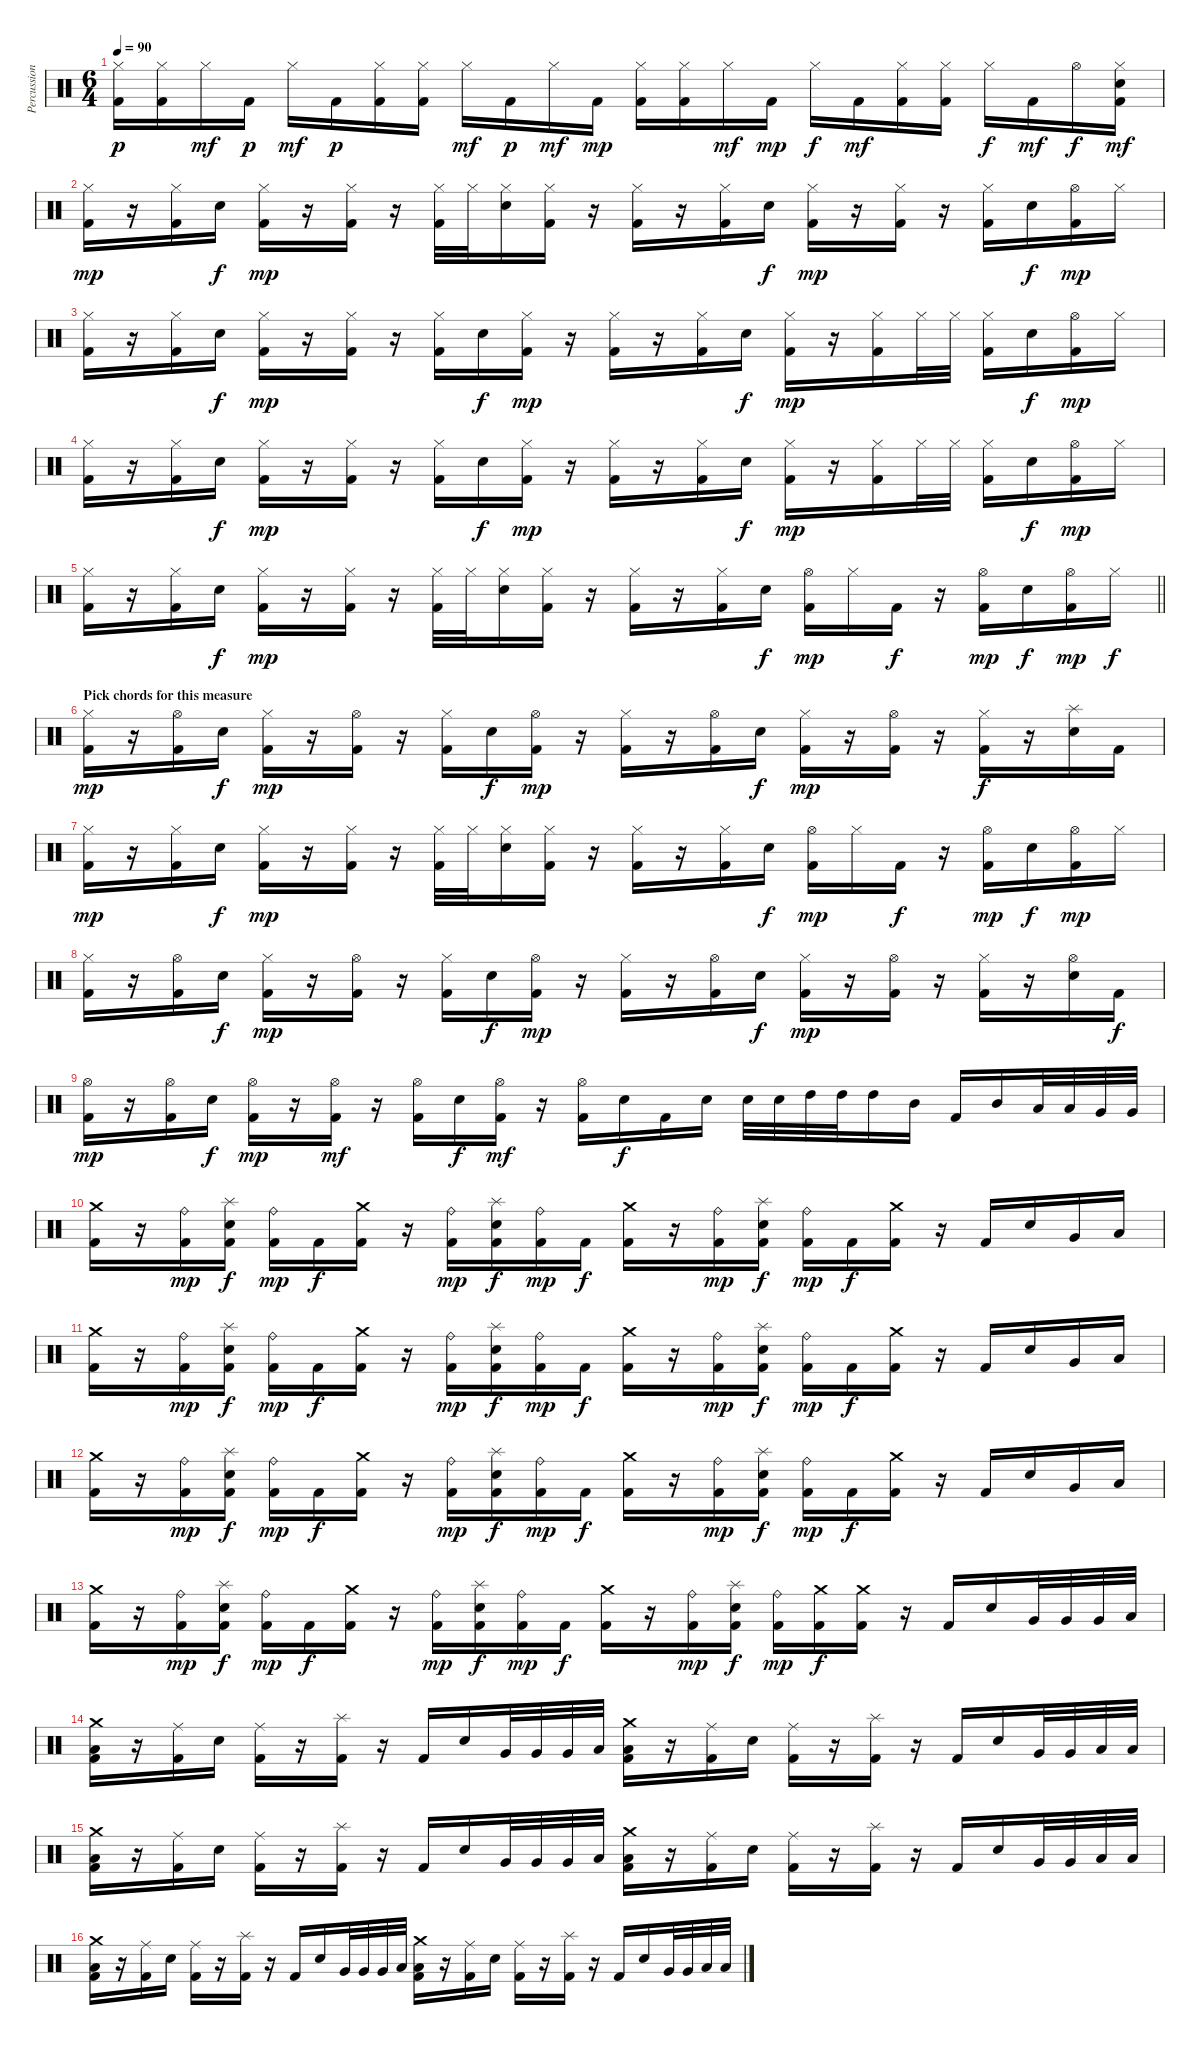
\track ("Percussion" "Percussion") {instrument percussion}
\staff {score}
\articulation defaults
\ts (6 4)
\tempo 90
\clef neutral
\ks c
("Hi-Hat (closed)" "Kick (hit) 2").16{dy p} ("Hi-Hat (closed)" "Kick (hit) 2").16 "Hi-Hat (closed)".16{dy mf} "Kick (hit) 2".16{dy p} "Hi-Hat (closed)".16{dy mf} "Kick (hit) 2".16{dy p} ("Hi-Hat (closed)" "Kick (hit) 2").16 ("Hi-Hat (closed)" "Kick (hit) 2").16 "Hi-Hat (closed)".16{dy mf} "Kick (hit) 2".16{dy p} "Hi-Hat (closed)".16{dy mf} "Kick (hit) 2".16{dy mp} ("Hi-Hat (closed)" "Kick (hit) 2").16 ("Hi-Hat (closed)" "Kick (hit) 2").16 "Hi-Hat (closed)".16{dy mf} "Kick (hit) 2".16{dy mp} "Hi-Hat (closed)".16{dy f} "Kick (hit) 2".16{dy mf} ("Hi-Hat (closed)" "Kick (hit) 2").16 ("Hi-Hat (closed)" "Kick (hit) 2").16 "Hi-Hat (closed)".16{dy f} "Kick (hit) 2".16{dy mf} "Hi-Hat (open)".16{dy f} ("Hi-Hat (closed)" "Electric Snare (hit)" "Kick (hit) 2").16{dy mf} |
("Hi-Hat (closed)" "Kick (hit) 2").16{dy mp} r.16 ("Hi-Hat (closed)" "Kick (hit) 2").16 "Electric Snare (hit)".16{dy f} ("Hi-Hat (closed)" "Kick (hit) 2").16{dy mp} r.16 ("Hi-Hat (closed)" "Kick (hit) 2").16 r.16 ("Hi-Hat (closed)" "Kick (hit) 2").32 "Hi-Hat (closed)".32 ("Hi-Hat (closed)" "Electric Snare (hit)").16 ("Hi-Hat (closed)" "Kick (hit) 2").16 r.16 ("Hi-Hat (closed)" "Kick (hit) 2").16 r.16 ("Hi-Hat (closed)" "Kick (hit) 2").16 "Electric Snare (hit)".16{dy f} ("Hi-Hat (closed)" "Kick (hit) 2").16{dy mp} r.16 ("Hi-Hat (closed)" "Kick (hit) 2").16 r.16 ("Hi-Hat (closed)" "Kick (hit) 2").16 "Electric Snare (hit)".16{dy f} ("Hi-Hat (open)" "Kick (hit) 2").16{dy mp} "Hi-Hat (closed)".16 |
("Hi-Hat (closed)" "Kick (hit) 2").16 r.16 ("Hi-Hat (closed)" "Kick (hit) 2").16 "Electric Snare (hit)".16{dy f} ("Hi-Hat (closed)" "Kick (hit) 2").16{dy mp} r.16 ("Hi-Hat (closed)" "Kick (hit) 2").16 r.16 ("Hi-Hat (closed)" "Kick (hit) 2").16 "Electric Snare (hit)".16{dy f} ("Hi-Hat (closed)" "Kick (hit) 2").16{dy mp} r.16 ("Hi-Hat (closed)" "Kick (hit) 2").16 r.16 ("Hi-Hat (closed)" "Kick (hit) 2").16 "Electric Snare (hit)".16{dy f} ("Hi-Hat (closed)" "Kick (hit) 2").16{dy mp} r.16 ("Hi-Hat (closed)" "Kick (hit) 2").16 "Hi-Hat (closed)".32 "Hi-Hat (closed)".32 ("Hi-Hat (closed)" "Kick (hit) 2").16 "Electric Snare (hit)".16{dy f} ("Hi-Hat (open)" "Kick (hit) 2").16{dy mp} "Hi-Hat (closed)".16 |
("Hi-Hat (closed)" "Kick (hit) 2").16 r.16 ("Hi-Hat (closed)" "Kick (hit) 2").16 "Electric Snare (hit)".16{dy f} ("Hi-Hat (closed)" "Kick (hit) 2").16{dy mp} r.16 ("Hi-Hat (closed)" "Kick (hit) 2").16 r.16 ("Hi-Hat (closed)" "Kick (hit) 2").16 "Electric Snare (hit)".16{dy f} ("Hi-Hat (closed)" "Kick (hit) 2").16{dy mp} r.16 ("Hi-Hat (closed)" "Kick (hit) 2").16 r.16 ("Hi-Hat (closed)" "Kick (hit) 2").16 "Electric Snare (hit)".16{dy f} ("Hi-Hat (closed)" "Kick (hit) 2").16{dy mp} r.16 ("Hi-Hat (closed)" "Kick (hit) 2").16 "Hi-Hat (closed)".32 "Hi-Hat (closed)".32 ("Hi-Hat (closed)" "Kick (hit) 2").16 "Electric Snare (hit)".16{dy f} ("Hi-Hat (open)" "Kick (hit) 2").16{dy mp} "Hi-Hat (closed)".16 |
\barLineRight lightlight
("Hi-Hat (closed)" "Kick (hit) 2").16 r.16 ("Hi-Hat (closed)" "Kick (hit) 2").16 "Electric Snare (hit)".16{dy f} ("Hi-Hat (closed)" "Kick (hit) 2").16{dy mp} r.16 ("Hi-Hat (closed)" "Kick (hit) 2").16 r.16 ("Hi-Hat (closed)" "Kick (hit) 2").32 "Hi-Hat (closed)".32 ("Hi-Hat (closed)" "Electric Snare (hit)").16 ("Hi-Hat (closed)" "Kick (hit) 2").16 r.16 ("Hi-Hat (closed)" "Kick (hit) 2").16 r.16 ("Hi-Hat (closed)" "Kick (hit) 2").16 "Electric Snare (hit)".16{dy f} ("Hi-Hat (open)" "Kick (hit) 2").16{dy mp} "Hi-Hat (closed)".16 "Kick (hit) 2".16{dy f} r.16 ("Hi-Hat (open)" "Kick (hit) 2").16{dy mp} "Electric Snare (hit)".16{dy f} ("Hi-Hat (open)" "Kick (hit) 2").16{dy mp} "Hi-Hat (closed)".16{dy f} |
\section ("" "Pick chords for this measure")
("Hi-Hat (closed)" "Kick (hit) 2").16{dy mp} r.16 ("Hi-Hat (open)" "Kick (hit) 2").16 "Electric Snare (hit)".16{dy f} ("Hi-Hat (closed)" "Kick (hit) 2").16{dy mp} r.16 ("Hi-Hat (open)" "Kick (hit) 2").16 r.16 ("Hi-Hat (closed)" "Kick (hit) 2").16 "Electric Snare (hit)".16{dy f} ("Hi-Hat (open)" "Kick (hit) 2").16{dy mp} r.16 ("Hi-Hat (closed)" "Kick (hit) 2").16 r.16 ("Hi-Hat (open)" "Kick (hit) 2").16 "Electric Snare (hit)".16{dy f} ("Hi-Hat (closed)" "Kick (hit) 2").16{dy mp} r.16 ("Hi-Hat (open)" "Kick (hit) 2").16 r.16 ("Hi-Hat (closed)" "Kick (hit) 2").16{dy f} r.16 ("Splash (hit)" "Electric Snare (hit)").16 "Kick (hit) 2".16 |
("Hi-Hat (closed)" "Kick (hit) 2").16{dy mp} r.16 ("Hi-Hat (closed)" "Kick (hit) 2").16 "Electric Snare (hit)".16{dy f} ("Hi-Hat (closed)" "Kick (hit) 2").16{dy mp} r.16 ("Hi-Hat (closed)" "Kick (hit) 2").16 r.16 ("Hi-Hat (closed)" "Kick (hit) 2").32 "Hi-Hat (closed)".32 ("Hi-Hat (closed)" "Electric Snare (hit)").16 ("Hi-Hat (closed)" "Kick (hit) 2").16 r.16 ("Hi-Hat (closed)" "Kick (hit) 2").16 r.16 ("Hi-Hat (closed)" "Kick (hit) 2").16 "Electric Snare (hit)".16{dy f} ("Hi-Hat (open)" "Kick (hit) 2").16{dy mp} "Hi-Hat (closed)".16 "Kick (hit) 2".16{dy f} r.16 ("Hi-Hat (open)" "Kick (hit) 2").16{dy mp} "Electric Snare (hit)".16{dy f} ("Hi-Hat (open)" "Kick (hit) 2").16{dy mp} "Hi-Hat (closed)".16 |
("Hi-Hat (closed)" "Kick (hit) 2").16 r.16 ("Hi-Hat (open)" "Kick (hit) 2").16 "Electric Snare (hit)".16{dy f} ("Hi-Hat (closed)" "Kick (hit) 2").16{dy mp} r.16 ("Hi-Hat (open)" "Kick (hit) 2").16 r.16 ("Hi-Hat (closed)" "Kick (hit) 2").16 "Electric Snare (hit)".16{dy f} ("Hi-Hat (open)" "Kick (hit) 2").16{dy mp} r.16 ("Hi-Hat (closed)" "Kick (hit) 2").16 r.16 ("Hi-Hat (open)" "Kick (hit) 2").16 "Electric Snare (hit)".16{dy f} ("Hi-Hat (closed)" "Kick (hit) 2").16{dy mp} r.16 ("Hi-Hat (open)" "Kick (hit) 2").16 r.16 ("Hi-Hat (closed)" "Kick (hit) 2").16 r.16 ("Hi-Hat (open)" "Electric Snare (hit)").16 "Kick (hit) 2".16{dy f} |
("Hi-Hat (open)" "Kick (hit) 2").16{dy mp} r.16 ("Hi-Hat (open)" "Kick (hit) 2").16 "Electric Snare (hit)".16{dy f} ("Hi-Hat (open)" "Kick (hit) 2").16{dy mp} r.16 ("Hi-Hat (open)" "Kick (hit) 2").16{dy mf} r.16 ("Hi-Hat (open)" "Kick (hit) 2").16 "Electric Snare (hit)".16{dy f} ("Hi-Hat (open)" "Kick (hit) 2").16{dy mf} r.16 ("Hi-Hat (open)" "Kick (hit) 2").16 "Electric Snare (hit)".16{dy f} "Kick (hit) 2".16 "Electric Snare (hit)".16 "Electric Snare (hit)".32 "Electric Snare (hit)".32 "High Tom (hit)".32 "High Tom (hit)".32 "High Tom (hit)".16 "Mid Tom (hit)".16 "Kick (hit) 2".16 "Mid Tom (hit)".16 "Low Tom (hit)".32 "Low Tom (hit)".32 "Very Low Tom (hit)".32 "Very Low Tom (hit)".32 |
("Crash medium (hit)" "Kick (hit) 2").16 r.16 ("Ride (bell)" "Kick (hit) 2").16{dy mp} ("Splash (hit)" "Electric Snare (hit)" "Kick (hit) 2").16{dy f} ("Ride (bell)" "Kick (hit) 2").16{dy mp} "Kick (hit) 2".16{dy f} ("Crash medium (hit)" "Kick (hit) 2").16 r.16 ("Ride (bell)" "Kick (hit) 2").16{dy mp} ("Splash (hit)" "Electric Snare (hit)" "Kick (hit) 2").16{dy f} ("Ride (bell)" "Kick (hit) 2").16{dy mp} "Kick (hit) 2".16{dy f} ("Crash medium (hit)" "Kick (hit) 2").16 r.16 ("Ride (bell)" "Kick (hit) 2").16{dy mp} ("Splash (hit)" "Electric Snare (hit)" "Kick (hit) 2").16{dy f} ("Ride (bell)" "Kick (hit) 2").16{dy mp} "Kick (hit) 2".16{dy f} ("Crash medium (hit)" "Kick (hit) 2").16 r.16 "Kick (hit) 2".16 "Electric Snare (hit)".16 "Very Low Tom (hit)".16 "Low Floor Tom (hit)".16 |
("Crash medium (hit)" "Kick (hit) 2").16 r.16 ("Ride (bell)" "Kick (hit) 2").16{dy mp} ("Splash (hit)" "Electric Snare (hit)" "Kick (hit) 2").16{dy f} ("Ride (bell)" "Kick (hit) 2").16{dy mp} "Kick (hit) 2".16{dy f} ("Crash medium (hit)" "Kick (hit) 2").16 r.16 ("Ride (bell)" "Kick (hit) 2").16{dy mp} ("Splash (hit)" "Electric Snare (hit)" "Kick (hit) 2").16{dy f} ("Ride (bell)" "Kick (hit) 2").16{dy mp} "Kick (hit) 2".16{dy f} ("Crash medium (hit)" "Kick (hit) 2").16 r.16 ("Ride (bell)" "Kick (hit) 2").16{dy mp} ("Splash (hit)" "Electric Snare (hit)" "Kick (hit) 2").16{dy f} ("Ride (bell)" "Kick (hit) 2").16{dy mp} "Kick (hit) 2".16{dy f} ("Crash medium (hit)" "Kick (hit) 2").16 r.16 "Kick (hit) 2".16 "Electric Snare (hit)".16 "Very Low Tom (hit)".16 "Low Floor Tom (hit)".16 |
("Crash medium (hit)" "Kick (hit) 2").16 r.16 ("Ride (bell)" "Kick (hit) 2").16{dy mp} ("Splash (hit)" "Electric Snare (hit)" "Kick (hit) 2").16{dy f} ("Ride (bell)" "Kick (hit) 2").16{dy mp} "Kick (hit) 2".16{dy f} ("Crash medium (hit)" "Kick (hit) 2").16 r.16 ("Ride (bell)" "Kick (hit) 2").16{dy mp} ("Splash (hit)" "Electric Snare (hit)" "Kick (hit) 2").16{dy f} ("Ride (bell)" "Kick (hit) 2").16{dy mp} "Kick (hit) 2".16{dy f} ("Crash medium (hit)" "Kick (hit) 2").16 r.16 ("Ride (bell)" "Kick (hit) 2").16{dy mp} ("Splash (hit)" "Electric Snare (hit)" "Kick (hit) 2").16{dy f} ("Ride (bell)" "Kick (hit) 2").16{dy mp} "Kick (hit) 2".16{dy f} ("Crash medium (hit)" "Kick (hit) 2").16 r.16 "Kick (hit) 2".16 "Electric Snare (hit)".16 "Very Low Tom (hit)".16 "Low Floor Tom (hit)".16 |
("Crash medium (hit)" "Kick (hit) 2").16 r.16 ("Ride (bell)" "Kick (hit) 2").16{dy mp} ("Splash (hit)" "Electric Snare (hit)" "Kick (hit) 2").16{dy f} ("Ride (bell)" "Kick (hit) 2").16{dy mp} "Kick (hit) 2".16{dy f} ("Crash medium (hit)" "Kick (hit) 2").16 r.16 ("Ride (bell)" "Kick (hit) 2").16{dy mp} ("Splash (hit)" "Electric Snare (hit)" "Kick (hit) 2").16{dy f} ("Ride (bell)" "Kick (hit) 2").16{dy mp} "Kick (hit) 2".16{dy f} ("Crash medium (hit)" "Kick (hit) 2").16 r.16 ("Ride (bell)" "Kick (hit) 2").16{dy mp} ("Splash (hit)" "Electric Snare (hit)" "Kick (hit) 2").16{dy f} ("Ride (bell)" "Kick (hit) 2").16{dy mp} ("Crash medium (hit)" "Kick (hit) 2").16{dy f} ("Crash medium (hit)" "Kick (hit) 2").16 r.16 "Kick (hit) 2".16 "Electric Snare (hit)".16 "Very Low Tom (hit)".32 "Very Low Tom (hit)".32 "Very Low Tom (hit)".32 "Low Floor Tom (hit)".32 |
("Crash medium (hit)" "Low Floor Tom (hit)" "Kick (hit) 2").16 r.16 ("Ride (middle)" "Kick (hit) 2").16 "Electric Snare (hit)".16 ("Ride (middle)" "Kick (hit) 2").16 r.16 ("Splash (hit)" "Kick (hit) 2").16 r.16 "Kick (hit) 2".16 "Electric Snare (hit)".16 "Very Low Tom (hit)".32 "Very Low Tom (hit)".32 "Very Low Tom (hit)".32 "Low Floor Tom (hit)".32 ("Crash medium (hit)" "Low Floor Tom (hit)" "Kick (hit) 2").16 r.16 ("Ride (middle)" "Kick (hit) 2").16 "Electric Snare (hit)".16 ("Ride (middle)" "Kick (hit) 2").16 r.16 ("Splash (hit)" "Kick (hit) 2").16 r.16 "Kick (hit) 2".16 "Electric Snare (hit)".16 "Very Low Tom (hit)".32 "Very Low Tom (hit)".32 "Low Floor Tom (hit)".32 "Low Floor Tom (hit)".32 |
("Crash medium (hit)" "Low Floor Tom (hit)" "Kick (hit) 2").16 r.16 ("Ride (middle)" "Kick (hit) 2").16 "Electric Snare (hit)".16 ("Ride (middle)" "Kick (hit) 2").16 r.16 ("Splash (hit)" "Kick (hit) 2").16 r.16 "Kick (hit) 2".16 "Electric Snare (hit)".16 "Very Low Tom (hit)".32 "Very Low Tom (hit)".32 "Very Low Tom (hit)".32 "Low Floor Tom (hit)".32 ("Crash medium (hit)" "Low Floor Tom (hit)" "Kick (hit) 2").16 r.16 ("Ride (middle)" "Kick (hit) 2").16 "Electric Snare (hit)".16 ("Ride (middle)" "Kick (hit) 2").16 r.16 ("Splash (hit)" "Kick (hit) 2").16 r.16 "Kick (hit) 2".16 "Electric Snare (hit)".16 "Very Low Tom (hit)".32 "Very Low Tom (hit)".32 "Low Floor Tom (hit)".32 "Low Floor Tom (hit)".32 |
("Crash medium (hit)" "Low Floor Tom (hit)" "Kick (hit) 2").16 r.16 ("Ride (middle)" "Kick (hit) 2").16 "Electric Snare (hit)".16 ("Ride (middle)" "Kick (hit) 2").16 r.16 ("Splash (hit)" "Kick (hit) 2").16 r.16 "Kick (hit) 2".16 "Electric Snare (hit)".16 "Very Low Tom (hit)".32 "Very Low Tom (hit)".32 "Very Low Tom (hit)".32 "Low Floor Tom (hit)".32 ("Crash medium (hit)" "Low Floor Tom (hit)" "Kick (hit) 2").16 r.16 ("Ride (middle)" "Kick (hit) 2").16 "Electric Snare (hit)".16 ("Ride (middle)" "Kick (hit) 2").16 r.16 ("Splash (hit)" "Kick (hit) 2").16 r.16 "Kick (hit) 2".16 "Electric Snare (hit)".16 "Very Low Tom (hit)".32 "Very Low Tom (hit)".32 "Low Floor Tom (hit)".32 "Low Floor Tom (hit)".32
